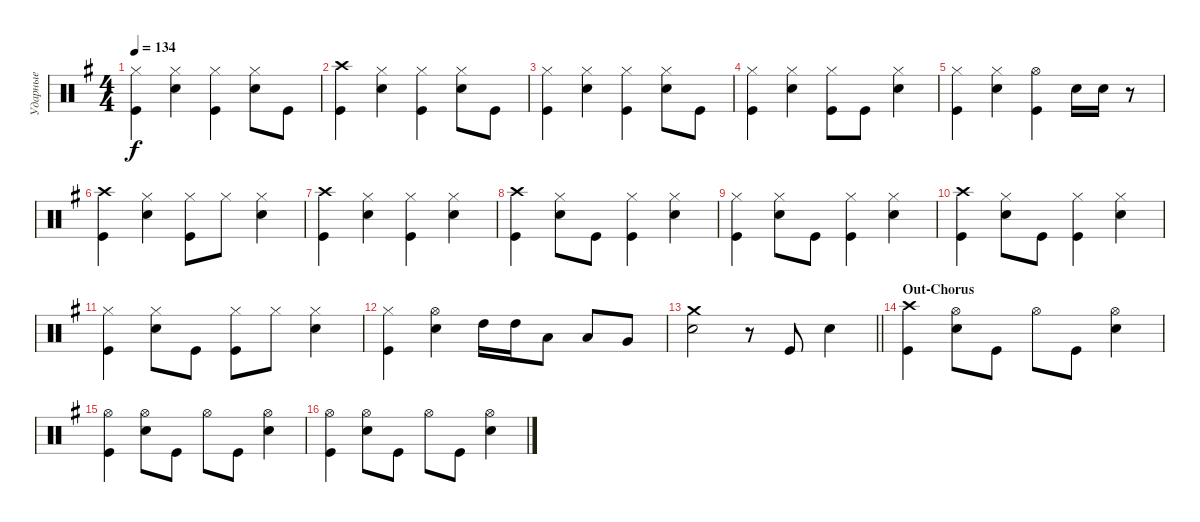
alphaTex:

\track ("Ударные" "Ударные") {instrument percussion}
\staff {score}
\articulation defaults
\ts (4 4)
\tempo 134
\clef neutral
\ks eminor
("Kick (hit)" "Hi-Hat (closed)").4{dy f} ("Snare (hit) 2" "Hi-Hat (closed)").4 ("Kick (hit)" "Hi-Hat (closed)").4 ("Snare (hit) 2" "Hi-Hat (closed)").8 "Kick (hit)".8 |
("Kick (hit)" "Crash high (hit)").4 ("Snare (hit) 2" "Hi-Hat (closed)").4 ("Kick (hit)" "Hi-Hat (closed)").4 ("Snare (hit) 2" "Hi-Hat (closed)").8 "Kick (hit)".8 |
("Kick (hit)" "Hi-Hat (closed)").4 ("Snare (hit) 2" "Hi-Hat (closed)").4 ("Kick (hit)" "Hi-Hat (closed)").4 ("Snare (hit) 2" "Hi-Hat (closed)").8 "Kick (hit)".8 |
("Kick (hit)" "Hi-Hat (closed)").4 ("Snare (hit) 2" "Hi-Hat (closed)").4 ("Kick (hit)" "Hi-Hat (closed)").8 "Kick (hit)".8 ("Snare (hit) 2" "Hi-Hat (closed)").4 |
("Kick (hit)" "Hi-Hat (closed)").4 ("Snare (hit) 2" "Hi-Hat (closed)").4 ("Kick (hit)" "Hi-Hat (open)").4 "Snare (hit) 2".16 "Snare (hit) 2".16 r.8 |
("Kick (hit)" "Crash high (hit)").4 ("Snare (hit) 2" "Hi-Hat (closed)").4 ("Kick (hit)" "Hi-Hat (closed)").8 "Hi-Hat (closed)".8 ("Snare (hit) 2" "Hi-Hat (closed)").4 |
("Kick (hit)" "Crash high (hit)").4 ("Snare (hit) 2" "Hi-Hat (closed)").4 ("Kick (hit)" "Hi-Hat (closed)").4 ("Snare (hit) 2" "Hi-Hat (closed)").4 |
("Kick (hit)" "Crash high (hit)").4 ("Snare (hit) 2" "Hi-Hat (closed)").8 "Kick (hit)".8 ("Kick (hit)" "Hi-Hat (closed)").4 ("Snare (hit) 2" "Hi-Hat (closed)").4 |
("Kick (hit)" "Hi-Hat (closed)").4 ("Snare (hit) 2" "Hi-Hat (closed)").8 "Kick (hit)".8 ("Kick (hit)" "Hi-Hat (closed)").4 ("Snare (hit) 2" "Hi-Hat (closed)").4 |
("Kick (hit)" "Crash high (hit)").4 ("Snare (hit) 2" "Hi-Hat (closed)").8 "Kick (hit)".8 ("Kick (hit)" "Hi-Hat (closed)").4 ("Snare (hit) 2" "Hi-Hat (closed)").4 |
("Kick (hit)" "Hi-Hat (closed)").4 ("Snare (hit) 2" "Hi-Hat (closed)").8 "Kick (hit)".8 ("Kick (hit)" "Hi-Hat (closed)").8 "Hi-Hat (closed)".8 ("Snare (hit) 2" "Hi-Hat (closed)").4 |
("Kick (hit)" "Hi-Hat (closed)").4 ("Hi-Hat (open)" "Snare (hit) 2").4 "High Tom (hit)".16 "High Tom (hit)".16 "Low Tom (hit)".8 "Low Tom (hit)".8 "Very Low Tom (hit)".8 |
\barLineRight lightlight
("Snare (hit) 2" "Crash medium (hit)").2 r.8 "Kick (hit)".8 "Snare (hit) 2".4 |
\section ("" "Out-Chorus")
("Kick (hit)" "Crash high (hit)").4{volume 14} ("Snare (hit) 2" "Hi-Hat (open)").8 "Kick (hit)".8 "Hi-Hat (open)".8 "Kick (hit)".8 ("Snare (hit) 2" "Hi-Hat (open)").4 |
("Kick (hit)" "Hi-Hat (open)").4 ("Snare (hit) 2" "Hi-Hat (open)").8 "Kick (hit)".8 "Hi-Hat (open)".8 "Kick (hit)".8 ("Snare (hit) 2" "Hi-Hat (open)").4 |
("Kick (hit)" "Hi-Hat (open)").4 ("Snare (hit) 2" "Hi-Hat (open)").8 "Kick (hit)".8 "Hi-Hat (open)".8 "Kick (hit)".8 ("Snare (hit) 2" "Hi-Hat (open)").4
